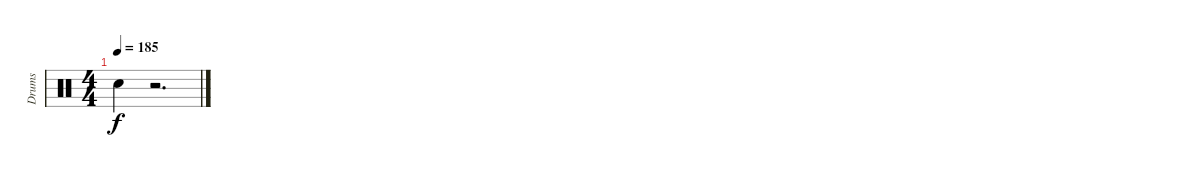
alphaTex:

\track ("Drums" "Drums") {instrument percussion}
\staff {score}
\articulation defaults
\ts (4 4)
\tempo 185
\clef neutral
\ks c "Electric Snare (hit)".4{dy f}
r.2{d}
